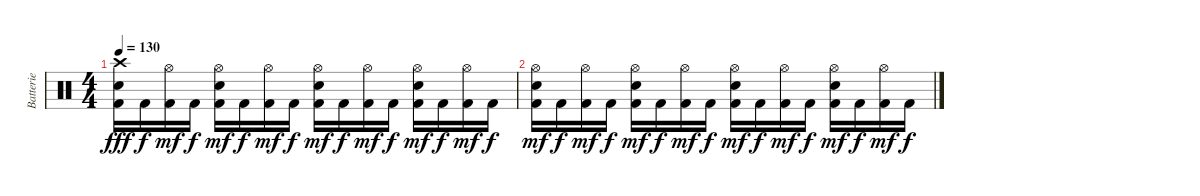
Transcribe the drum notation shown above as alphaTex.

\track ("Batterie" "Batterie") {instrument percussion}
\staff {score}
\articulation defaults
\ts (4 4)
\tempo 130
\clef neutral
\ks c
("Crash high (hit)" "Snare (hit) 2" "Kick (hit) 2").16{dy fff volume 0} "Kick (hit) 2".16{dy f} ("Kick (hit) 2" "Hi-Hat (open)").16{dy mf} "Kick (hit) 2".16{dy f} ("Snare (hit) 2" "Kick (hit) 2" "Hi-Hat (open)").16{dy mf} "Kick (hit) 2".16{dy f} ("Kick (hit) 2" "Hi-Hat (open)").16{dy mf} "Kick (hit) 2".16{dy f} ("Snare (hit) 2" "Kick (hit) 2" "Hi-Hat (open)").16{dy mf} "Kick (hit) 2".16{dy f} ("Kick (hit) 2" "Hi-Hat (open)").16{dy mf} "Kick (hit) 2".16{dy f} ("Snare (hit) 2" "Kick (hit) 2" "Hi-Hat (open)").16{dy mf} "Kick (hit) 2".16{dy f} ("Kick (hit) 2" "Hi-Hat (open)").16{dy mf} "Kick (hit) 2".16{dy f} |
("Snare (hit) 2" "Kick (hit) 2" "Hi-Hat (open)").16{dy mf} "Kick (hit) 2".16{dy f} ("Kick (hit) 2" "Hi-Hat (open)").16{dy mf} "Kick (hit) 2".16{dy f} ("Snare (hit) 2" "Kick (hit) 2" "Hi-Hat (open)").16{dy mf} "Kick (hit) 2".16{dy f} ("Kick (hit) 2" "Hi-Hat (open)").16{dy mf} "Kick (hit) 2".16{dy f} ("Snare (hit) 2" "Kick (hit) 2" "Hi-Hat (open)").16{dy mf} "Kick (hit) 2".16{dy f} ("Kick (hit) 2" "Hi-Hat (open)").16{dy mf} "Kick (hit) 2".16{dy f} ("Snare (hit) 2" "Kick (hit) 2" "Hi-Hat (open)").16{dy mf} "Kick (hit) 2".16{dy f} ("Kick (hit) 2" "Hi-Hat (open)").16{dy mf} "Kick (hit) 2".16{dy f}
